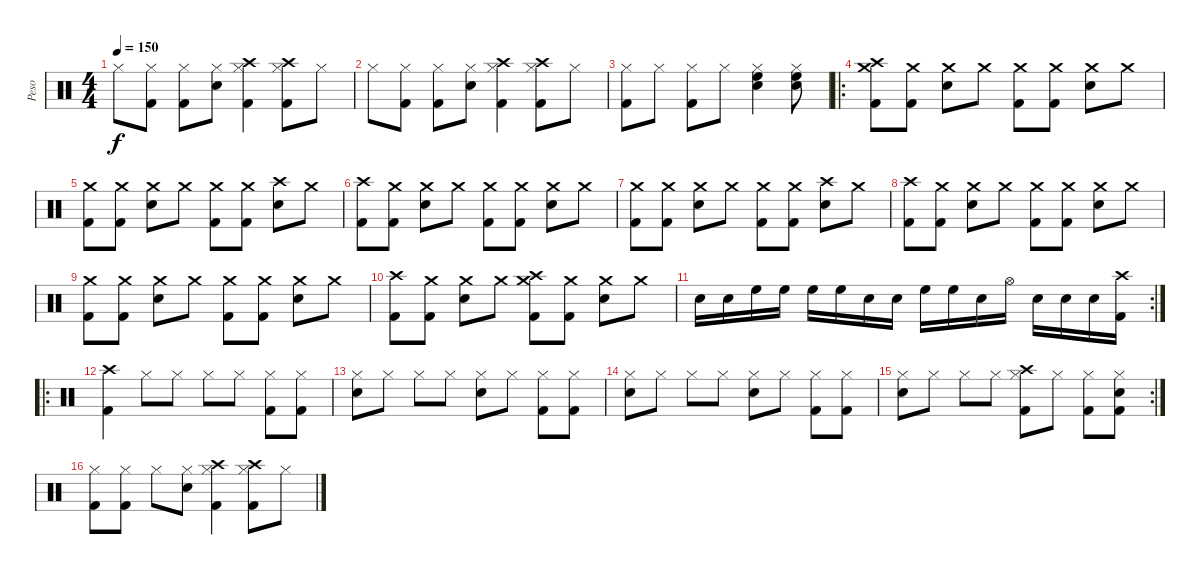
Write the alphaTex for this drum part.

\track ("Peso" "Peso") {instrument percussion}
\staff {score}
\articulation defaults
\ts (4 4)
\tempo 150
\clef neutral
\ks c "Hi-Hat (closed)".8{dy f}
("Hi-Hat (closed)" "Kick (hit) 2").8 ("Hi-Hat (closed)" "Kick (hit) 2").8 ("Hi-Hat (closed)" "Snare (hit) 2").8 ("Crash high (hit)" "Hi-Hat (closed)" "Kick (hit) 2").4 ("Crash high (hit)" "Hi-Hat (closed)" "Kick (hit) 2").8 "Hi-Hat (closed)".8 |
"Hi-Hat (closed)".8 ("Hi-Hat (closed)" "Kick (hit) 2").8 ("Hi-Hat (closed)" "Kick (hit) 2").8 ("Hi-Hat (closed)" "Snare (hit) 2").8 ("Crash high (hit)" "Hi-Hat (closed)" "Kick (hit) 2").4 ("Crash high (hit)" "Hi-Hat (closed)" "Kick (hit) 2").8 "Hi-Hat (closed)".8 |
("Hi-Hat (closed)" "Kick (hit) 2").8 "Hi-Hat (closed)".8 ("Hi-Hat (closed)" "Kick (hit) 2").8 "Hi-Hat (closed)".8 ("Hi-Hat (closed)" "Snare (hit) 2" "High Floor Tom (hit)").4 ("Hi-Hat (closed)" "Snare (hit) 2" "High Floor Tom (hit)").8 |
\ro
("Crash high (hit)" "Crash medium (hit)" "Kick (hit) 2").8 ("Crash medium (hit)" "Kick (hit) 2").8 ("Crash medium (hit)" "Snare (hit) 2").8 "Crash medium (hit)".8 ("Crash medium (hit)" "Kick (hit) 2").8 ("Crash medium (hit)" "Kick (hit) 2").8 ("Crash medium (hit)" "Snare (hit) 2").8 "Crash medium (hit)".8 |
("Crash medium (hit)" "Kick (hit) 2").8 ("Crash medium (hit)" "Kick (hit) 2").8 ("Crash medium (hit)" "Snare (hit) 2").8 "Crash medium (hit)".8 ("Crash medium (hit)" "Kick (hit) 2").8 ("Crash medium (hit)" "Kick (hit) 2").8 ("Crash high (hit)" "Snare (hit) 2").8 "Crash medium (hit)".8 |
("Crash high (hit)" "Kick (hit) 2").8 ("Crash medium (hit)" "Kick (hit) 2").8 ("Crash medium (hit)" "Snare (hit) 2").8 "Crash medium (hit)".8 ("Crash medium (hit)" "Kick (hit) 2").8 ("Crash medium (hit)" "Kick (hit) 2").8 ("Crash medium (hit)" "Snare (hit) 2").8 "Crash medium (hit)".8 |
("Crash medium (hit)" "Kick (hit) 2").8 ("Crash medium (hit)" "Kick (hit) 2").8 ("Crash medium (hit)" "Snare (hit) 2").8 "Crash medium (hit)".8 ("Crash medium (hit)" "Kick (hit) 2").8 ("Crash medium (hit)" "Kick (hit) 2").8 ("Crash high (hit)" "Snare (hit) 2").8 "Crash medium (hit)".8 |
("Crash high (hit)" "Kick (hit) 2").8 ("Crash medium (hit)" "Kick (hit) 2").8 ("Crash medium (hit)" "Snare (hit) 2").8 "Crash medium (hit)".8 ("Crash medium (hit)" "Kick (hit) 2").8 ("Crash medium (hit)" "Kick (hit) 2").8 ("Crash medium (hit)" "Snare (hit) 2").8 "Crash medium (hit)".8 |
("Crash medium (hit)" "Kick (hit) 2").8 ("Crash medium (hit)" "Kick (hit) 2").8 ("Crash medium (hit)" "Snare (hit) 2").8 "Crash medium (hit)".8 ("Crash medium (hit)" "Kick (hit) 2").8 ("Crash medium (hit)" "Kick (hit) 2").8 ("Crash medium (hit)" "Snare (hit) 2").8 "Crash medium (hit)".8 |
("Crash high (hit)" "Kick (hit) 2").8 ("Crash medium (hit)" "Kick (hit) 2").8 ("Crash medium (hit)" "Snare (hit) 2").8 "Crash medium (hit)".8 ("Crash high (hit)" "Crash medium (hit)" "Kick (hit) 2").8 ("Crash medium (hit)" "Kick (hit) 2").8 ("Crash medium (hit)" "Snare (hit) 2").8 "Crash medium (hit)".8 |
\rc 2 "Snare (hit) 2".16 "Snare (hit) 2".16 "High Floor Tom (hit)".16 "High Floor Tom (hit)".16 "High Floor Tom (hit)".16 "High Floor Tom (hit)".16 "Snare (hit) 2".16 "Snare (hit) 2".16 "High Floor Tom (hit)".16 "High Floor Tom (hit)".16 "Snare (hit) 2".16 "Hi-Hat (open)".16 "Snare (hit) 2".16 "Snare (hit) 2".16 "Snare (hit) 2".16
("Crash high (hit)" "Kick (hit) 2").16 |
\ro
("Crash high (hit)" "Kick (hit) 2").4 "Hi-Hat (closed)".8 "Hi-Hat (closed)".8 "Hi-Hat (closed)".8 "Hi-Hat (closed)".8 ("Hi-Hat (closed)" "Kick (hit) 2").8 ("Hi-Hat (closed)" "Kick (hit) 2").8 |
("Hi-Hat (closed)" "Snare (hit) 2").8 "Hi-Hat (closed)".8 "Hi-Hat (closed)".8 "Hi-Hat (closed)".8 ("Hi-Hat (closed)" "Snare (hit) 2").8 "Hi-Hat (closed)".8 ("Hi-Hat (closed)" "Kick (hit) 2").8 ("Hi-Hat (closed)" "Kick (hit) 2").8 |
("Hi-Hat (closed)" "Snare (hit) 2").8 "Hi-Hat (closed)".8 "Hi-Hat (closed)".8 "Hi-Hat (closed)".8 ("Hi-Hat (closed)" "Snare (hit) 2").8 "Hi-Hat (closed)".8 ("Hi-Hat (closed)" "Kick (hit) 2").8 ("Hi-Hat (closed)" "Kick (hit) 2").8 |
\rc 2
("Hi-Hat (closed)" "Snare (hit) 2").8 "Hi-Hat (closed)".8 "Hi-Hat (closed)".8 "Hi-Hat (closed)".8 ("Crash high (hit)" "Hi-Hat (closed)" "Kick (hit) 2").8 "Hi-Hat (closed)".8 ("Hi-Hat (closed)" "Kick (hit) 2").8 ("Hi-Hat (closed)" "Snare (hit) 2" "Kick (hit) 2").8 |
("Hi-Hat (closed)" "Kick (hit) 2").8 ("Hi-Hat (closed)" "Kick (hit) 2").8 "Hi-Hat (closed)".8 ("Hi-Hat (closed)" "Snare (hit) 2").8 ("Crash high (hit)" "Hi-Hat (closed)" "Kick (hit) 2").4 ("Crash high (hit)" "Hi-Hat (closed)" "Kick (hit) 2").8 "Hi-Hat (closed)".8
